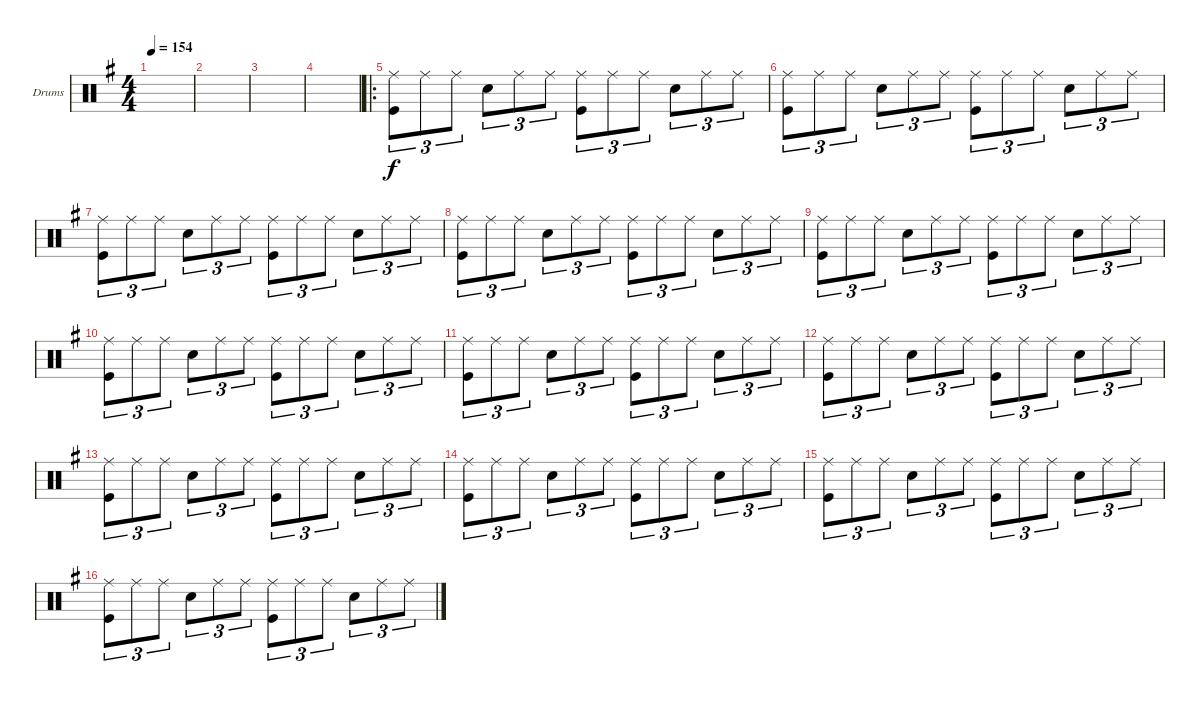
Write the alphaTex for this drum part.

\defaultSystemsLayout 4
\bracketExtendMode groupsimilarinstruments
\firstSystemTrackNameOrientation horizontal
\otherSystemsTrackNameOrientation horizontal
\track ("Drumkit" "Drums") {instrument percussion}
\staff {score}
\articulation defaults
\ts (4 4)
\tempo 154
\clef neutral
\scale
0.474178
\ks g
|
\scale
0.262911 |
\scale
0.262911 |
\scale
0.333333 |
\ro
\scale
0.333333 ("Kick (hit)" "Ride (middle)").8{tu (3 2)} "Ride (middle)".8{tu (3 2)} "Ride (middle)".8{tu (3 2)} "Snare (hit) 2".8{tu (3 2)} "Ride (middle)".8{tu (3 2)} "Ride (middle)".8{tu (3 2)} ("Ride (middle)" "Kick (hit)").8{tu (3 2)} "Ride (middle)".8{tu (3 2)} "Ride (middle)".8{tu (3 2)} "Snare (hit) 2".8{tu (3 2)} "Ride (middle)".8{tu (3 2)} "Ride (middle)".8{tu (3 2)} |
\scale
0.333333 ("Kick (hit)" "Ride (middle)").8{tu (3 2)} "Ride (middle)".8{tu (3 2)} "Ride (middle)".8{tu (3 2)} "Snare (hit) 2".8{tu (3 2)} "Ride (middle)".8{tu (3 2)} "Ride (middle)".8{tu (3 2)} ("Ride (middle)" "Kick (hit)").8{tu (3 2)} "Ride (middle)".8{tu (3 2)} "Ride (middle)".8{tu (3 2)} "Snare (hit) 2".8{tu (3 2)} "Ride (middle)".8{tu (3 2)} "Ride (middle)".8{tu (3 2)} |
("Kick (hit)" "Ride (middle)").8{tu (3 2)} "Ride (middle)".8{tu (3 2)} "Ride (middle)".8{tu (3 2)} "Snare (hit) 2".8{tu (3 2)} "Ride (middle)".8{tu (3 2)} "Ride (middle)".8{tu (3 2)} ("Ride (middle)" "Kick (hit)").8{tu (3 2)} "Ride (middle)".8{tu (3 2)} "Ride (middle)".8{tu (3 2)} "Snare (hit) 2".8{tu (3 2)} "Ride (middle)".8{tu (3 2)} "Ride (middle)".8{tu (3 2)} |
("Kick (hit)" "Ride (middle)").8{tu (3 2)} "Ride (middle)".8{tu (3 2)} "Ride (middle)".8{tu (3 2)} "Snare (hit) 2".8{tu (3 2)} "Ride (middle)".8{tu (3 2)} "Ride (middle)".8{tu (3 2)} ("Ride (middle)" "Kick (hit)").8{tu (3 2)} "Ride (middle)".8{tu (3 2)} "Ride (middle)".8{tu (3 2)} "Snare (hit) 2".8{tu (3 2)} "Ride (middle)".8{tu (3 2)} "Ride (middle)".8{tu (3 2)} |
("Kick (hit)" "Ride (middle)").8{tu (3 2)} "Ride (middle)".8{tu (3 2)} "Ride (middle)".8{tu (3 2)} "Snare (hit) 2".8{tu (3 2)} "Ride (middle)".8{tu (3 2)} "Ride (middle)".8{tu (3 2)} ("Ride (middle)" "Kick (hit)").8{tu (3 2)} "Ride (middle)".8{tu (3 2)} "Ride (middle)".8{tu (3 2)} "Snare (hit) 2".8{tu (3 2)} "Ride (middle)".8{tu (3 2)} "Ride (middle)".8{tu (3 2)} |
("Kick (hit)" "Ride (middle)").8{tu (3 2)} "Ride (middle)".8{tu (3 2)} "Ride (middle)".8{tu (3 2)} "Snare (hit) 2".8{tu (3 2)} "Ride (middle)".8{tu (3 2)} "Ride (middle)".8{tu (3 2)} ("Ride (middle)" "Kick (hit)").8{tu (3 2)} "Ride (middle)".8{tu (3 2)} "Ride (middle)".8{tu (3 2)} "Snare (hit) 2".8{tu (3 2)} "Ride (middle)".8{tu (3 2)} "Ride (middle)".8{tu (3 2)} |
("Kick (hit)" "Ride (middle)").8{tu (3 2)} "Ride (middle)".8{tu (3 2)} "Ride (middle)".8{tu (3 2)} "Snare (hit) 2".8{tu (3 2)} "Ride (middle)".8{tu (3 2)} "Ride (middle)".8{tu (3 2)} ("Ride (middle)" "Kick (hit)").8{tu (3 2)} "Ride (middle)".8{tu (3 2)} "Ride (middle)".8{tu (3 2)} "Snare (hit) 2".8{tu (3 2)} "Ride (middle)".8{tu (3 2)} "Ride (middle)".8{tu (3 2)} |
("Kick (hit)" "Ride (middle)").8{tu (3 2)} "Ride (middle)".8{tu (3 2)} "Ride (middle)".8{tu (3 2)} "Snare (hit) 2".8{tu (3 2)} "Ride (middle)".8{tu (3 2)} "Ride (middle)".8{tu (3 2)} ("Ride (middle)" "Kick (hit)").8{tu (3 2)} "Ride (middle)".8{tu (3 2)} "Ride (middle)".8{tu (3 2)} "Snare (hit) 2".8{tu (3 2)} "Ride (middle)".8{tu (3 2)} "Ride (middle)".8{tu (3 2)} |
("Kick (hit)" "Ride (middle)").8{tu (3 2)} "Ride (middle)".8{tu (3 2)} "Ride (middle)".8{tu (3 2)} "Snare (hit) 2".8{tu (3 2)} "Ride (middle)".8{tu (3 2)} "Ride (middle)".8{tu (3 2)} ("Ride (middle)" "Kick (hit)").8{tu (3 2)} "Ride (middle)".8{tu (3 2)} "Ride (middle)".8{tu (3 2)} "Snare (hit) 2".8{tu (3 2)} "Ride (middle)".8{tu (3 2)} "Ride (middle)".8{tu (3 2)} |
("Kick (hit)" "Ride (middle)").8{tu (3 2)} "Ride (middle)".8{tu (3 2)} "Ride (middle)".8{tu (3 2)} "Snare (hit) 2".8{tu (3 2)} "Ride (middle)".8{tu (3 2)} "Ride (middle)".8{tu (3 2)} ("Ride (middle)" "Kick (hit)").8{tu (3 2)} "Ride (middle)".8{tu (3 2)} "Ride (middle)".8{tu (3 2)} "Snare (hit) 2".8{tu (3 2)} "Ride (middle)".8{tu (3 2)} "Ride (middle)".8{tu (3 2)} |
("Kick (hit)" "Ride (middle)").8{tu (3 2)} "Ride (middle)".8{tu (3 2)} "Ride (middle)".8{tu (3 2)} "Snare (hit) 2".8{tu (3 2)} "Ride (middle)".8{tu (3 2)} "Ride (middle)".8{tu (3 2)} ("Ride (middle)" "Kick (hit)").8{tu (3 2)} "Ride (middle)".8{tu (3 2)} "Ride (middle)".8{tu (3 2)} "Snare (hit) 2".8{tu (3 2)} "Ride (middle)".8{tu (3 2)} "Ride (middle)".8{tu (3 2)} |
("Kick (hit)" "Ride (middle)").8{tu (3 2)} "Ride (middle)".8{tu (3 2)} "Ride (middle)".8{tu (3 2)} "Snare (hit) 2".8{tu (3 2)} "Ride (middle)".8{tu (3 2)} "Ride (middle)".8{tu (3 2)} ("Ride (middle)" "Kick (hit)").8{tu (3 2)} "Ride (middle)".8{tu (3 2)} "Ride (middle)".8{tu (3 2)} "Snare (hit) 2".8{tu (3 2)} "Ride (middle)".8{tu (3 2)} "Ride (middle)".8{tu (3 2)}
